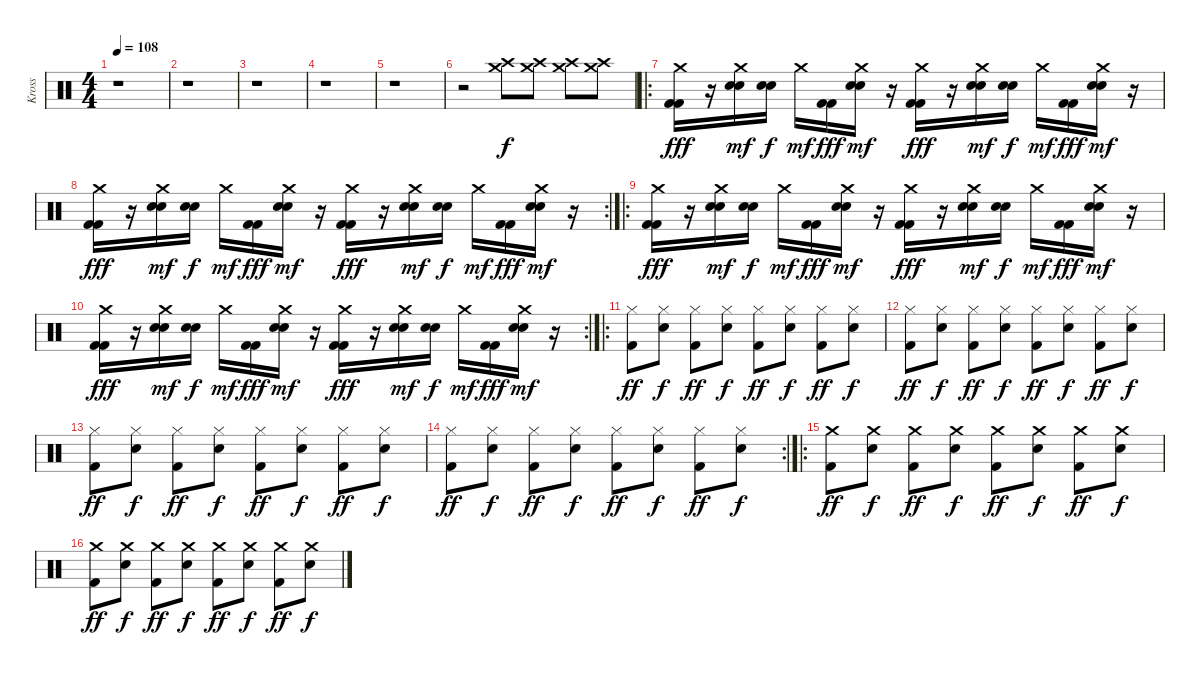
\track ("Kross" "Kross") {instrument percussion}
\staff {score}
\articulation defaults
\ts (4 4)
\tempo 108
\clef neutral
\ks c
r.1{dy f} |
r.1 |
r.1 |
r.1 |
r.1 |
r.2 ("Crash medium (hit)" "Crash high (hit)").8 ("Crash medium (hit)" "Crash high (hit)").8 ("Crash medium (hit)" "Crash high (hit)").8 ("Crash medium (hit)" "Crash high (hit)").8 |
\ro
("Crash medium (hit)" "Kick (hit) 2" "Kick (hit) 2").16{dy fff} r.16 ("Crash medium (hit)" "Snare (hit) 2" "Snare (hit) 2").16{dy mf} ("Snare (hit) 2" "Snare (hit) 2").16{dy f} "Crash medium (hit)".16{dy mf} ("Kick (hit) 2" "Kick (hit) 2").16{dy fff} ("Crash medium (hit)" "Snare (hit) 2" "Snare (hit) 2").16{dy mf} r.16 ("Crash medium (hit)" "Kick (hit) 2" "Kick (hit) 2").16{dy fff} r.16 ("Crash medium (hit)" "Snare (hit) 2" "Snare (hit) 2").16{dy mf} ("Snare (hit) 2" "Snare (hit) 2").16{dy f} "Crash medium (hit)".16{dy mf} ("Kick (hit) 2" "Kick (hit) 2").16{dy fff} ("Crash medium (hit)" "Snare (hit) 2" "Snare (hit) 2").16{dy mf} r.16 |
\rc 2
("Crash medium (hit)" "Kick (hit) 2" "Kick (hit) 2").16{dy fff} r.16 ("Crash medium (hit)" "Snare (hit) 2" "Snare (hit) 2").16{dy mf} ("Snare (hit) 2" "Snare (hit) 2").16{dy f} "Crash medium (hit)".16{dy mf} ("Kick (hit) 2" "Kick (hit) 2").16{dy fff} ("Crash medium (hit)" "Snare (hit) 2" "Snare (hit) 2").16{dy mf} r.16 ("Crash medium (hit)" "Kick (hit) 2" "Kick (hit) 2").16{dy fff} r.16 ("Crash medium (hit)" "Snare (hit) 2" "Snare (hit) 2").16{dy mf} ("Snare (hit) 2" "Snare (hit) 2").16{dy f} "Crash medium (hit)".16{dy mf} ("Kick (hit) 2" "Kick (hit) 2").16{dy fff} ("Crash medium (hit)" "Snare (hit) 2" "Snare (hit) 2").16{dy mf} r.16 |
\ro
("Crash medium (hit)" "Kick (hit) 2" "Kick (hit) 2").16{dy fff} r.16 ("Crash medium (hit)" "Snare (hit) 2" "Snare (hit) 2").16{dy mf} ("Snare (hit) 2" "Snare (hit) 2").16{dy f} "Crash medium (hit)".16{dy mf} ("Kick (hit) 2" "Kick (hit) 2").16{dy fff} ("Crash medium (hit)" "Snare (hit) 2" "Snare (hit) 2").16{dy mf} r.16 ("Crash medium (hit)" "Kick (hit) 2" "Kick (hit) 2").16{dy fff} r.16 ("Crash medium (hit)" "Snare (hit) 2" "Snare (hit) 2").16{dy mf} ("Snare (hit) 2" "Snare (hit) 2").16{dy f} "Crash medium (hit)".16{dy mf} ("Kick (hit) 2" "Kick (hit) 2").16{dy fff} ("Crash medium (hit)" "Snare (hit) 2" "Snare (hit) 2").16{dy mf} r.16 |
\rc 2
("Crash medium (hit)" "Kick (hit) 2" "Kick (hit) 2").16{dy fff} r.16 ("Crash medium (hit)" "Snare (hit) 2" "Snare (hit) 2").16{dy mf} ("Snare (hit) 2" "Snare (hit) 2").16{dy f} "Crash medium (hit)".16{dy mf} ("Kick (hit) 2" "Kick (hit) 2").16{dy fff} ("Crash medium (hit)" "Snare (hit) 2" "Snare (hit) 2").16{dy mf} r.16 ("Crash medium (hit)" "Kick (hit) 2" "Kick (hit) 2").16{dy fff} r.16 ("Crash medium (hit)" "Snare (hit) 2" "Snare (hit) 2").16{dy mf} ("Snare (hit) 2" "Snare (hit) 2").16{dy f} "Crash medium (hit)".16{dy mf} ("Kick (hit) 2" "Kick (hit) 2").16{dy fff} ("Crash medium (hit)" "Snare (hit) 2" "Snare (hit) 2").16{dy mf} r.16 |
\ro
("Kick (hit) 2" "Hi-Hat (closed)").8{dy ff} ("Hi-Hat (closed)" "Snare (hit) 2").8{dy f} ("Kick (hit) 2" "Hi-Hat (closed)").8{dy ff} ("Hi-Hat (closed)" "Snare (hit) 2").8{dy f} ("Kick (hit) 2" "Hi-Hat (closed)").8{dy ff} ("Hi-Hat (closed)" "Snare (hit) 2").8{dy f} ("Kick (hit) 2" "Hi-Hat (closed)").8{dy ff} ("Hi-Hat (closed)" "Snare (hit) 2").8{dy f} |
("Kick (hit) 2" "Hi-Hat (closed)").8{dy ff} ("Hi-Hat (closed)" "Snare (hit) 2").8{dy f} ("Kick (hit) 2" "Hi-Hat (closed)").8{dy ff} ("Hi-Hat (closed)" "Snare (hit) 2").8{dy f} ("Kick (hit) 2" "Hi-Hat (closed)").8{dy ff} ("Hi-Hat (closed)" "Snare (hit) 2").8{dy f} ("Kick (hit) 2" "Hi-Hat (closed)").8{dy ff} ("Hi-Hat (closed)" "Snare (hit) 2").8{dy f} |
("Kick (hit) 2" "Hi-Hat (closed)").8{dy ff} ("Hi-Hat (closed)" "Snare (hit) 2").8{dy f} ("Kick (hit) 2" "Hi-Hat (closed)").8{dy ff} ("Hi-Hat (closed)" "Snare (hit) 2").8{dy f} ("Kick (hit) 2" "Hi-Hat (closed)").8{dy ff} ("Hi-Hat (closed)" "Snare (hit) 2").8{dy f} ("Kick (hit) 2" "Hi-Hat (closed)").8{dy ff} ("Hi-Hat (closed)" "Snare (hit) 2").8{dy f} |
\rc 2
("Kick (hit) 2" "Hi-Hat (closed)").8{dy ff} ("Hi-Hat (closed)" "Snare (hit) 2").8{dy f} ("Kick (hit) 2" "Hi-Hat (closed)").8{dy ff} ("Hi-Hat (closed)" "Snare (hit) 2").8{dy f} ("Kick (hit) 2" "Hi-Hat (closed)").8{dy ff} ("Hi-Hat (closed)" "Snare (hit) 2").8{dy f} ("Kick (hit) 2" "Hi-Hat (closed)").8{dy ff} ("Hi-Hat (closed)" "Snare (hit) 2").8{dy f} |
\ro
("Kick (hit) 2" "Crash medium (hit)").8{dy ff} ("Crash medium (hit)" "Snare (hit) 2").8{dy f} ("Kick (hit) 2" "Crash medium (hit)").8{dy ff} ("Crash medium (hit)" "Snare (hit) 2").8{dy f} ("Kick (hit) 2" "Crash medium (hit)").8{dy ff} ("Crash medium (hit)" "Snare (hit) 2").8{dy f} ("Kick (hit) 2" "Crash medium (hit)").8{dy ff} ("Crash medium (hit)" "Snare (hit) 2").8{dy f} |
("Kick (hit) 2" "Crash medium (hit)").8{dy ff} ("Crash medium (hit)" "Snare (hit) 2").8{dy f} ("Kick (hit) 2" "Crash medium (hit)").8{dy ff} ("Crash medium (hit)" "Snare (hit) 2").8{dy f} ("Kick (hit) 2" "Crash medium (hit)").8{dy ff} ("Crash medium (hit)" "Snare (hit) 2").8{dy f} ("Kick (hit) 2" "Crash medium (hit)").8{dy ff} ("Crash medium (hit)" "Snare (hit) 2").8{dy f}
